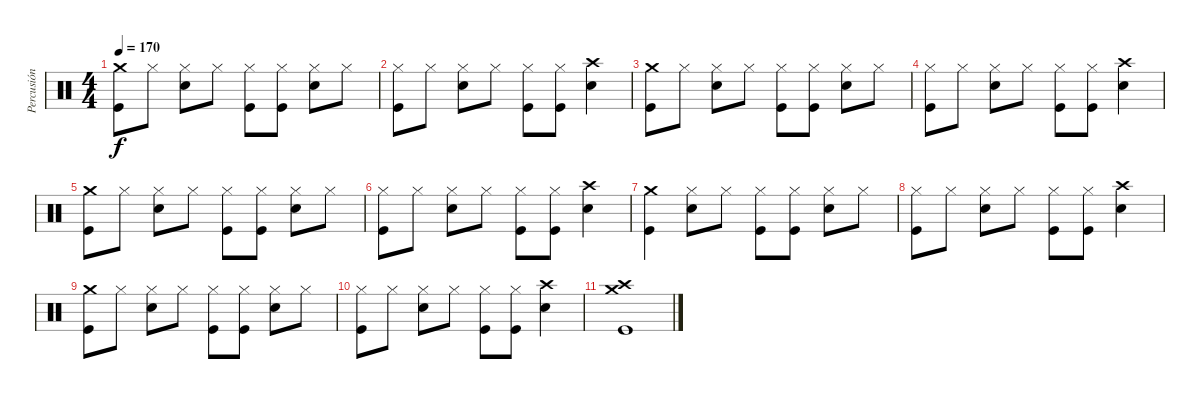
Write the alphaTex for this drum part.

\track ("Percusión" "Percusión") {instrument percussion}
\staff {score}
\articulation defaults
\ts (4 4)
\tempo 170
\clef neutral
\ks c
("Kick (hit)" "Crash medium (hit)").8{dy f} "Hi-Hat (closed)".8 ("Snare (hit) 2" "Hi-Hat (closed)").8 "Hi-Hat (closed)".8 ("Hi-Hat (closed)" "Kick (hit)").8 ("Kick (hit)" "Hi-Hat (closed)").8 ("Snare (hit) 2" "Hi-Hat (closed)").8 "Hi-Hat (closed)".8 |
("Kick (hit)" "Hi-Hat (closed)").8 "Hi-Hat (closed)".8 ("Snare (hit) 2" "Hi-Hat (closed)").8 "Hi-Hat (closed)".8 ("Hi-Hat (closed)" "Kick (hit)").8 ("Kick (hit)" "Hi-Hat (closed)").8 ("Snare (hit) 2" "Crash high (hit)").4 |
("Kick (hit)" "Crash medium (hit)").8 "Hi-Hat (closed)".8 ("Snare (hit) 2" "Hi-Hat (closed)").8 "Hi-Hat (closed)".8 ("Hi-Hat (closed)" "Kick (hit)").8 ("Kick (hit)" "Hi-Hat (closed)").8 ("Snare (hit) 2" "Hi-Hat (closed)").8 "Hi-Hat (closed)".8 |
("Kick (hit)" "Hi-Hat (closed)").8 "Hi-Hat (closed)".8 ("Snare (hit) 2" "Hi-Hat (closed)").8 "Hi-Hat (closed)".8 ("Hi-Hat (closed)" "Kick (hit)").8 ("Kick (hit)" "Hi-Hat (closed)").8 ("Snare (hit) 2" "Crash high (hit)").4 |
("Kick (hit)" "Crash medium (hit)").8 "Hi-Hat (closed)".8 ("Snare (hit) 2" "Hi-Hat (closed)").8 "Hi-Hat (closed)".8 ("Hi-Hat (closed)" "Kick (hit)").8 ("Kick (hit)" "Hi-Hat (closed)").8 ("Snare (hit) 2" "Hi-Hat (closed)").8 "Hi-Hat (closed)".8 |
("Kick (hit)" "Hi-Hat (closed)").8 "Hi-Hat (closed)".8 ("Snare (hit) 2" "Hi-Hat (closed)").8 "Hi-Hat (closed)".8 ("Hi-Hat (closed)" "Kick (hit)").8 ("Kick (hit)" "Hi-Hat (closed)").8 ("Snare (hit) 2" "Crash high (hit)").4 |
("Kick (hit)" "Crash medium (hit)").4 ("Snare (hit) 2" "Hi-Hat (closed)").8 "Hi-Hat (closed)".8 ("Hi-Hat (closed)" "Kick (hit)").8 ("Kick (hit)" "Hi-Hat (closed)").8 ("Snare (hit) 2" "Hi-Hat (closed)").8 "Hi-Hat (closed)".8 |
("Kick (hit)" "Hi-Hat (closed)").8 "Hi-Hat (closed)".8 ("Snare (hit) 2" "Hi-Hat (closed)").8 "Hi-Hat (closed)".8 ("Hi-Hat (closed)" "Kick (hit)").8 ("Kick (hit)" "Hi-Hat (closed)").8 ("Snare (hit) 2" "Crash high (hit)").4 |
("Kick (hit)" "Crash medium (hit)").8 "Hi-Hat (closed)".8 ("Snare (hit) 2" "Hi-Hat (closed)").8 "Hi-Hat (closed)".8 ("Hi-Hat (closed)" "Kick (hit)").8 ("Kick (hit)" "Hi-Hat (closed)").8 ("Snare (hit) 2" "Hi-Hat (closed)").8 "Hi-Hat (closed)".8 |
("Kick (hit)" "Hi-Hat (closed)").8 "Hi-Hat (closed)".8 ("Snare (hit) 2" "Hi-Hat (closed)").8 "Hi-Hat (closed)".8 ("Hi-Hat (closed)" "Kick (hit)").8 ("Kick (hit)" "Hi-Hat (closed)").8 ("Snare (hit) 2" "Crash high (hit)").4 |
("Kick (hit)" "Crash high (hit)" "Crash medium (hit)").1
